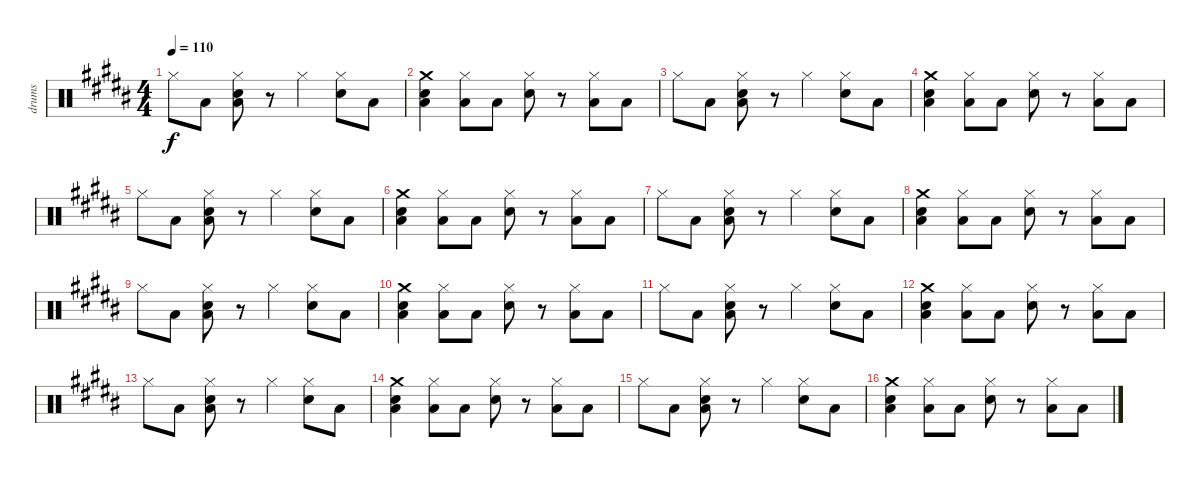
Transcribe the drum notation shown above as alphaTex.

\track ("drums" "drums") {instrument percussion}
\staff {score}
\articulation defaults
\ts (4 4)
\tempo 110
\clef neutral
\ks b "Hi-Hat (closed)".8{dy f} "Low Floor Tom (hit)".8
("Hi-Hat (closed)" "Electric Snare (hit)" "Low Floor Tom (hit)").8 r.8 "Hi-Hat (closed)".4 ("Hi-Hat (closed)" "Electric Snare (hit)").8 "Low Floor Tom (hit)".8 |
("Crash medium (hit)" "Electric Snare (hit)" "Low Floor Tom (hit)").4 ("Hi-Hat (closed)" "Low Floor Tom (hit)").8 "Low Floor Tom (hit)".8 ("Hi-Hat (closed)" "Electric Snare (hit)").8 r.8 ("Hi-Hat (closed)" "Low Floor Tom (hit)").8 "Low Floor Tom (hit)".8 |
"Hi-Hat (closed)".8 "Low Floor Tom (hit)".8 ("Hi-Hat (closed)" "Electric Snare (hit)" "Low Floor Tom (hit)").8 r.8 "Hi-Hat (closed)".4 ("Hi-Hat (closed)" "Electric Snare (hit)").8 "Low Floor Tom (hit)".8 |
("Crash medium (hit)" "Electric Snare (hit)" "Low Floor Tom (hit)").4 ("Hi-Hat (closed)" "Low Floor Tom (hit)").8 "Low Floor Tom (hit)".8 ("Hi-Hat (closed)" "Electric Snare (hit)").8 r.8 ("Hi-Hat (closed)" "Low Floor Tom (hit)").8 "Low Floor Tom (hit)".8 |
"Hi-Hat (closed)".8 "Low Floor Tom (hit)".8 ("Hi-Hat (closed)" "Electric Snare (hit)" "Low Floor Tom (hit)").8 r.8 "Hi-Hat (closed)".4 ("Hi-Hat (closed)" "Electric Snare (hit)").8 "Low Floor Tom (hit)".8 |
("Crash medium (hit)" "Electric Snare (hit)" "Low Floor Tom (hit)").4 ("Hi-Hat (closed)" "Low Floor Tom (hit)").8 "Low Floor Tom (hit)".8 ("Hi-Hat (closed)" "Electric Snare (hit)").8 r.8 ("Hi-Hat (closed)" "Low Floor Tom (hit)").8 "Low Floor Tom (hit)".8 |
"Hi-Hat (closed)".8 "Low Floor Tom (hit)".8 ("Hi-Hat (closed)" "Electric Snare (hit)" "Low Floor Tom (hit)").8 r.8 "Hi-Hat (closed)".4 ("Hi-Hat (closed)" "Electric Snare (hit)").8 "Low Floor Tom (hit)".8 |
("Crash medium (hit)" "Electric Snare (hit)" "Low Floor Tom (hit)").4 ("Hi-Hat (closed)" "Low Floor Tom (hit)").8 "Low Floor Tom (hit)".8 ("Hi-Hat (closed)" "Electric Snare (hit)").8 r.8 ("Hi-Hat (closed)" "Low Floor Tom (hit)").8 "Low Floor Tom (hit)".8 |
"Hi-Hat (closed)".8 "Low Floor Tom (hit)".8 ("Hi-Hat (closed)" "Electric Snare (hit)" "Low Floor Tom (hit)").8 r.8 "Hi-Hat (closed)".4 ("Hi-Hat (closed)" "Electric Snare (hit)").8 "Low Floor Tom (hit)".8 |
("Crash medium (hit)" "Electric Snare (hit)" "Low Floor Tom (hit)").4 ("Hi-Hat (closed)" "Low Floor Tom (hit)").8 "Low Floor Tom (hit)".8 ("Hi-Hat (closed)" "Electric Snare (hit)").8 r.8 ("Hi-Hat (closed)" "Low Floor Tom (hit)").8 "Low Floor Tom (hit)".8 |
"Hi-Hat (closed)".8 "Low Floor Tom (hit)".8 ("Hi-Hat (closed)" "Electric Snare (hit)" "Low Floor Tom (hit)").8 r.8 "Hi-Hat (closed)".4 ("Hi-Hat (closed)" "Electric Snare (hit)").8 "Low Floor Tom (hit)".8 |
("Crash medium (hit)" "Electric Snare (hit)" "Low Floor Tom (hit)").4 ("Hi-Hat (closed)" "Low Floor Tom (hit)").8 "Low Floor Tom (hit)".8 ("Hi-Hat (closed)" "Electric Snare (hit)").8 r.8 ("Hi-Hat (closed)" "Low Floor Tom (hit)").8 "Low Floor Tom (hit)".8 |
"Hi-Hat (closed)".8 "Low Floor Tom (hit)".8 ("Hi-Hat (closed)" "Electric Snare (hit)" "Low Floor Tom (hit)").8 r.8 "Hi-Hat (closed)".4 ("Hi-Hat (closed)" "Electric Snare (hit)").8 "Low Floor Tom (hit)".8 |
("Crash medium (hit)" "Electric Snare (hit)" "Low Floor Tom (hit)").4 ("Hi-Hat (closed)" "Low Floor Tom (hit)").8 "Low Floor Tom (hit)".8 ("Hi-Hat (closed)" "Electric Snare (hit)").8 r.8 ("Hi-Hat (closed)" "Low Floor Tom (hit)").8 "Low Floor Tom (hit)".8 |
"Hi-Hat (closed)".8 "Low Floor Tom (hit)".8 ("Hi-Hat (closed)" "Electric Snare (hit)" "Low Floor Tom (hit)").8 r.8 "Hi-Hat (closed)".4 ("Hi-Hat (closed)" "Electric Snare (hit)").8 "Low Floor Tom (hit)".8 |
("Crash medium (hit)" "Electric Snare (hit)" "Low Floor Tom (hit)").4 ("Hi-Hat (closed)" "Low Floor Tom (hit)").8 "Low Floor Tom (hit)".8 ("Hi-Hat (closed)" "Electric Snare (hit)").8 r.8 ("Hi-Hat (closed)" "Low Floor Tom (hit)").8 "Low Floor Tom (hit)".8
